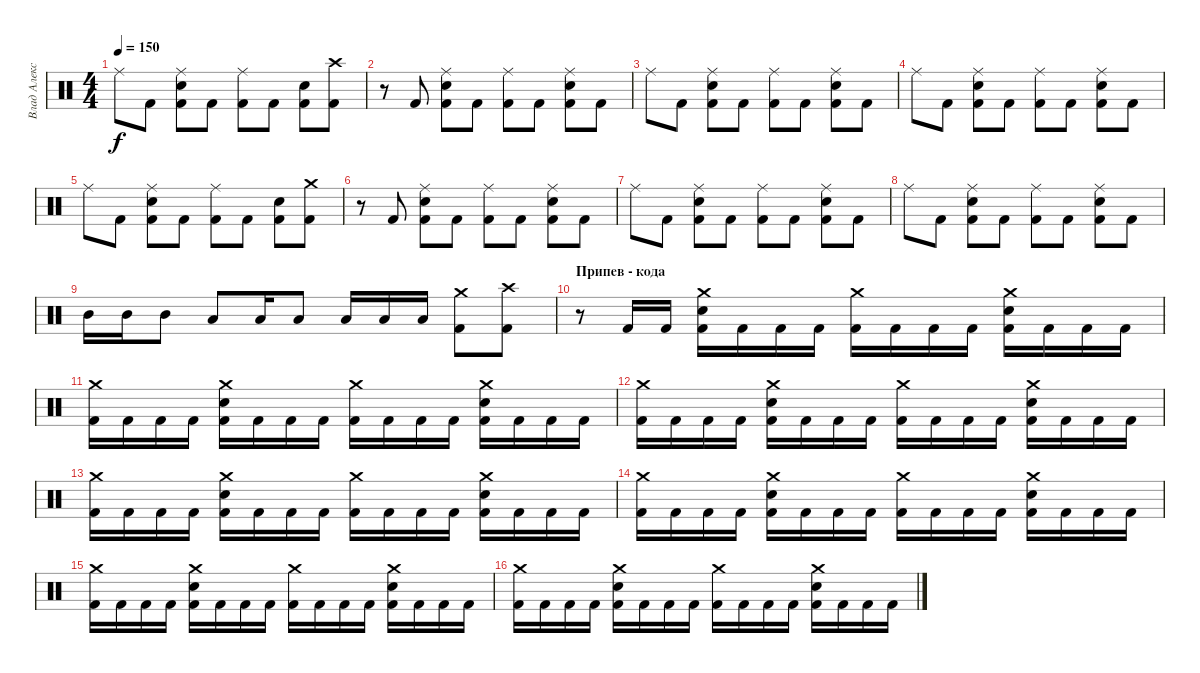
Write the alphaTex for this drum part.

\track ("Влад Алексеенко" "Влад Алекс") {instrument percussion}
\staff {score}
\articulation defaults
\ts (4 4)
\tempo 150
\clef neutral
\ks c "Ride (middle)".8{dy f} "Kick (hit) 2".8
("Ride (middle)" "Electric Snare (hit)" "Kick (hit) 2").8 "Kick (hit) 2".8 ("Ride (middle)" "Kick (hit) 2").8 "Kick (hit) 2".8 ("Electric Snare (hit)" "Kick (hit) 2").8 ("Crash high (hit)" "Kick (hit) 2").8 |
r.8 "Kick (hit) 2".8 ("Ride (middle)" "Electric Snare (hit)" "Kick (hit) 2").8 "Kick (hit) 2".8 ("Ride (middle)" "Kick (hit) 2").8 "Kick (hit) 2".8 ("Ride (middle)" "Electric Snare (hit)" "Kick (hit) 2").8 "Kick (hit) 2".8 |
"Ride (middle)".8 "Kick (hit) 2".8 ("Ride (middle)" "Electric Snare (hit)" "Kick (hit) 2").8 "Kick (hit) 2".8 ("Ride (middle)" "Kick (hit) 2").8 "Kick (hit) 2".8 ("Ride (middle)" "Electric Snare (hit)" "Kick (hit) 2").8 "Kick (hit) 2".8 |
"Ride (middle)".8 "Kick (hit) 2".8 ("Ride (middle)" "Electric Snare (hit)" "Kick (hit) 2").8 "Kick (hit) 2".8 ("Ride (middle)" "Kick (hit) 2").8 "Kick (hit) 2".8 ("Ride (middle)" "Electric Snare (hit)" "Kick (hit) 2").8 "Kick (hit) 2".8 |
"Ride (middle)".8 "Kick (hit) 2".8 ("Ride (middle)" "Electric Snare (hit)" "Kick (hit) 2").8 "Kick (hit) 2".8 ("Ride (middle)" "Kick (hit) 2").8 "Kick (hit) 2".8 ("Electric Snare (hit)" "Kick (hit) 2").8 ("Crash medium (hit)" "Kick (hit) 2").8 |
r.8 "Kick (hit) 2".8 ("Ride (middle)" "Electric Snare (hit)" "Kick (hit) 2").8 "Kick (hit) 2".8 ("Ride (middle)" "Kick (hit) 2").8 "Kick (hit) 2".8 ("Ride (middle)" "Electric Snare (hit)" "Kick (hit) 2").8 "Kick (hit) 2".8 |
"Ride (middle)".8 "Kick (hit) 2".8 ("Ride (middle)" "Electric Snare (hit)" "Kick (hit) 2").8 "Kick (hit) 2".8 ("Ride (middle)" "Kick (hit) 2").8 "Kick (hit) 2".8 ("Ride (middle)" "Electric Snare (hit)" "Kick (hit) 2").8 "Kick (hit) 2".8 |
"Ride (middle)".8 "Kick (hit) 2".8 ("Ride (middle)" "Electric Snare (hit)" "Kick (hit) 2").8 "Kick (hit) 2".8 ("Ride (middle)" "Kick (hit) 2").8 "Kick (hit) 2".8 ("Ride (middle)" "Electric Snare (hit)" "Kick (hit) 2").8 "Kick (hit) 2".8 |
"Mid Tom (hit)".16 "Mid Tom (hit)".16 "Mid Tom (hit)".8 "Low Tom (hit)".8 "Low Tom (hit)".16 "Low Tom (hit)".8 "Low Tom (hit)".16 "Low Tom (hit)".16 "Low Tom (hit)".16 ("Crash medium (hit)" "Kick (hit) 2").8 ("Crash high (hit)" "Kick (hit) 2").8 |
\section ("" "Припев - кода")
r.8 "Kick (hit) 2".16 "Kick (hit) 2".16 ("Crash medium (hit)" "Electric Snare (hit)" "Kick (hit) 2").16 "Kick (hit) 2".16 "Kick (hit) 2".16 "Kick (hit) 2".16 ("Crash medium (hit)" "Kick (hit) 2").16 "Kick (hit) 2".16 "Kick (hit) 2".16 "Kick (hit) 2".16 ("Crash medium (hit)" "Electric Snare (hit)" "Kick (hit) 2").16 "Kick (hit) 2".16 "Kick (hit) 2".16 "Kick (hit) 2".16 |
("Crash medium (hit)" "Kick (hit) 2").16 "Kick (hit) 2".16 "Kick (hit) 2".16 "Kick (hit) 2".16 ("Crash medium (hit)" "Electric Snare (hit)" "Kick (hit) 2").16 "Kick (hit) 2".16 "Kick (hit) 2".16 "Kick (hit) 2".16 ("Crash medium (hit)" "Kick (hit) 2").16 "Kick (hit) 2".16 "Kick (hit) 2".16 "Kick (hit) 2".16 ("Crash medium (hit)" "Electric Snare (hit)" "Kick (hit) 2").16 "Kick (hit) 2".16 "Kick (hit) 2".16 "Kick (hit) 2".16 |
("Crash medium (hit)" "Kick (hit) 2").16 "Kick (hit) 2".16 "Kick (hit) 2".16 "Kick (hit) 2".16 ("Crash medium (hit)" "Electric Snare (hit)" "Kick (hit) 2").16 "Kick (hit) 2".16 "Kick (hit) 2".16 "Kick (hit) 2".16 ("Crash medium (hit)" "Kick (hit) 2").16 "Kick (hit) 2".16 "Kick (hit) 2".16 "Kick (hit) 2".16 ("Crash medium (hit)" "Electric Snare (hit)" "Kick (hit) 2").16 "Kick (hit) 2".16 "Kick (hit) 2".16 "Kick (hit) 2".16 |
("Crash medium (hit)" "Kick (hit) 2").16 "Kick (hit) 2".16 "Kick (hit) 2".16 "Kick (hit) 2".16 ("Crash medium (hit)" "Electric Snare (hit)" "Kick (hit) 2").16 "Kick (hit) 2".16 "Kick (hit) 2".16 "Kick (hit) 2".16 ("Crash medium (hit)" "Kick (hit) 2").16 "Kick (hit) 2".16 "Kick (hit) 2".16 "Kick (hit) 2".16 ("Crash medium (hit)" "Electric Snare (hit)" "Kick (hit) 2").16 "Kick (hit) 2".16 "Kick (hit) 2".16 "Kick (hit) 2".16 |
("Crash medium (hit)" "Kick (hit) 2").16 "Kick (hit) 2".16 "Kick (hit) 2".16 "Kick (hit) 2".16 ("Crash medium (hit)" "Electric Snare (hit)" "Kick (hit) 2").16 "Kick (hit) 2".16 "Kick (hit) 2".16 "Kick (hit) 2".16 ("Crash medium (hit)" "Kick (hit) 2").16 "Kick (hit) 2".16 "Kick (hit) 2".16 "Kick (hit) 2".16 ("Crash medium (hit)" "Electric Snare (hit)" "Kick (hit) 2").16 "Kick (hit) 2".16 "Kick (hit) 2".16 "Kick (hit) 2".16 |
("Crash medium (hit)" "Kick (hit) 2").16 "Kick (hit) 2".16 "Kick (hit) 2".16 "Kick (hit) 2".16 ("Crash medium (hit)" "Electric Snare (hit)" "Kick (hit) 2").16 "Kick (hit) 2".16 "Kick (hit) 2".16 "Kick (hit) 2".16 ("Crash medium (hit)" "Kick (hit) 2").16 "Kick (hit) 2".16 "Kick (hit) 2".16 "Kick (hit) 2".16 ("Crash medium (hit)" "Electric Snare (hit)" "Kick (hit) 2").16 "Kick (hit) 2".16 "Kick (hit) 2".16 "Kick (hit) 2".16 |
("Crash medium (hit)" "Kick (hit) 2").16 "Kick (hit) 2".16 "Kick (hit) 2".16 "Kick (hit) 2".16 ("Crash medium (hit)" "Electric Snare (hit)" "Kick (hit) 2").16 "Kick (hit) 2".16 "Kick (hit) 2".16 "Kick (hit) 2".16 ("Crash medium (hit)" "Kick (hit) 2").16 "Kick (hit) 2".16 "Kick (hit) 2".16 "Kick (hit) 2".16 ("Crash medium (hit)" "Electric Snare (hit)" "Kick (hit) 2").16 "Kick (hit) 2".16 "Kick (hit) 2".16 "Kick (hit) 2".16
